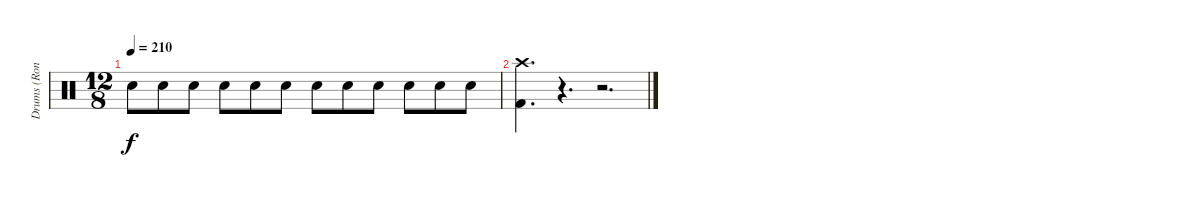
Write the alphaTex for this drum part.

\track ("Drums (Ronny)" "Drums (Ron") {instrument percussion}
\staff {score}
\articulation defaults
\ts (12 8)
\tempo 210
\clef neutral
\ks c "Snare (hit) 2".8{dy f} "Snare (hit) 2".8 "Snare (hit) 2".8 "Snare (hit) 2".8 "Snare (hit) 2".8 "Snare (hit) 2".8 "Snare (hit) 2".8 "Snare (hit) 2".8 "Snare (hit) 2".8 "Snare (hit) 2".8 "Snare (hit) 2".8 "Snare (hit) 2".8
|
("Crash high (hit)" "Kick (hit) 2").4{d} r.4{d} r.2{d}
